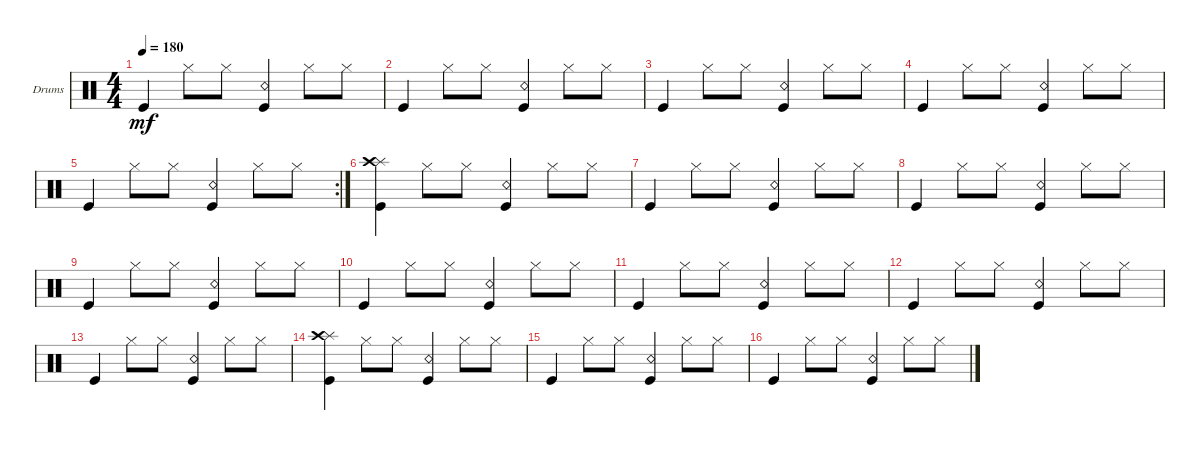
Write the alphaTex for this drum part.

\defaultSystemsLayout 4
\bracketExtendMode groupsimilarinstruments
\firstSystemTrackNameOrientation horizontal
\otherSystemsTrackNameOrientation horizontal
\track ("Drumkit" "Drums") {instrument percussion}
\staff {score}
\articulation defaults
\ts (4 4)
\tempo 180
\clef neutral
\scale
0.333333
\ks c "Kick (hit)".4{dy mf} "Hi-Hat (closed)".8 "Hi-Hat (closed)".8
("Snare (rim shot)" "Kick (hit)").4 "Hi-Hat (closed)".8 "Hi-Hat (closed)".8 |
\scale
0.333333 "Kick (hit)".4 "Hi-Hat (closed)".8 "Hi-Hat (closed)".8 ("Snare (rim shot)" "Kick (hit)").4 "Hi-Hat (closed)".8 "Hi-Hat (closed)".8 |
\scale
0.333333 "Kick (hit)".4 "Hi-Hat (closed)".8 "Hi-Hat (closed)".8 ("Snare (rim shot)" "Kick (hit)").4 "Hi-Hat (closed)".8 "Hi-Hat (closed)".8 |
\scale
0.333333 "Kick (hit)".4 "Hi-Hat (closed)".8 "Hi-Hat (closed)".8 ("Snare (rim shot)" "Kick (hit)").4 "Hi-Hat (closed)".8 "Hi-Hat (closed)".8 |
\rc 2
\scale
0.355932 "Kick (hit)".4 "Hi-Hat (closed)".8 "Hi-Hat (closed)".8 ("Snare (rim shot)" "Kick (hit)").4 "Hi-Hat (closed)".8 "Hi-Hat (closed)".8 |
\scale
0.322034 ("Kick (hit)" "Splash (hit)" "Crash high (hit)").4 "Hi-Hat (closed)".8 "Hi-Hat (closed)".8 ("Snare (rim shot)" "Kick (hit)").4 "Hi-Hat (closed)".8 "Hi-Hat (closed)".8 |
\scale
0.322034 "Kick (hit)".4 "Hi-Hat (closed)".8 "Hi-Hat (closed)".8 ("Snare (rim shot)" "Kick (hit)").4 "Hi-Hat (closed)".8 "Hi-Hat (closed)".8 |
\scale
0.333333 "Kick (hit)".4 "Hi-Hat (closed)".8 "Hi-Hat (closed)".8 ("Snare (rim shot)" "Kick (hit)").4 "Hi-Hat (closed)".8 "Hi-Hat (closed)".8 |
\scale
0.333333 "Kick (hit)".4 "Hi-Hat (closed)".8 "Hi-Hat (closed)".8 ("Snare (rim shot)" "Kick (hit)").4 "Hi-Hat (closed)".8 "Hi-Hat (closed)".8 |
\scale
0.333333 "Kick (hit)".4 "Hi-Hat (closed)".8 "Hi-Hat (closed)".8 ("Snare (rim shot)" "Kick (hit)").4 "Hi-Hat (closed)".8 "Hi-Hat (closed)".8 |
\scale
0.333333 "Kick (hit)".4 "Hi-Hat (closed)".8 "Hi-Hat (closed)".8 ("Snare (rim shot)" "Kick (hit)").4 "Hi-Hat (closed)".8 "Hi-Hat (closed)".8 |
\scale
0.333333 "Kick (hit)".4 "Hi-Hat (closed)".8 "Hi-Hat (closed)".8 ("Snare (rim shot)" "Kick (hit)").4 "Hi-Hat (closed)".8 "Hi-Hat (closed)".8 |
\scale
0.333333 "Kick (hit)".4 "Hi-Hat (closed)".8 "Hi-Hat (closed)".8 ("Snare (rim shot)" "Kick (hit)").4 "Hi-Hat (closed)".8 "Hi-Hat (closed)".8 |
\scale
0.333333 ("Kick (hit)" "Splash (hit)" "Crash high (hit)").4 "Hi-Hat (closed)".8 "Hi-Hat (closed)".8 ("Snare (rim shot)" "Kick (hit)").4 "Hi-Hat (closed)".8 "Hi-Hat (closed)".8 |
\scale
0.333333 "Kick (hit)".4 "Hi-Hat (closed)".8 "Hi-Hat (closed)".8 ("Snare (rim shot)" "Kick (hit)").4 "Hi-Hat (closed)".8 "Hi-Hat (closed)".8 |
\scale
0.333333 "Kick (hit)".4 "Hi-Hat (closed)".8 "Hi-Hat (closed)".8 ("Snare (rim shot)" "Kick (hit)").4 "Hi-Hat (closed)".8 "Hi-Hat (closed)".8
